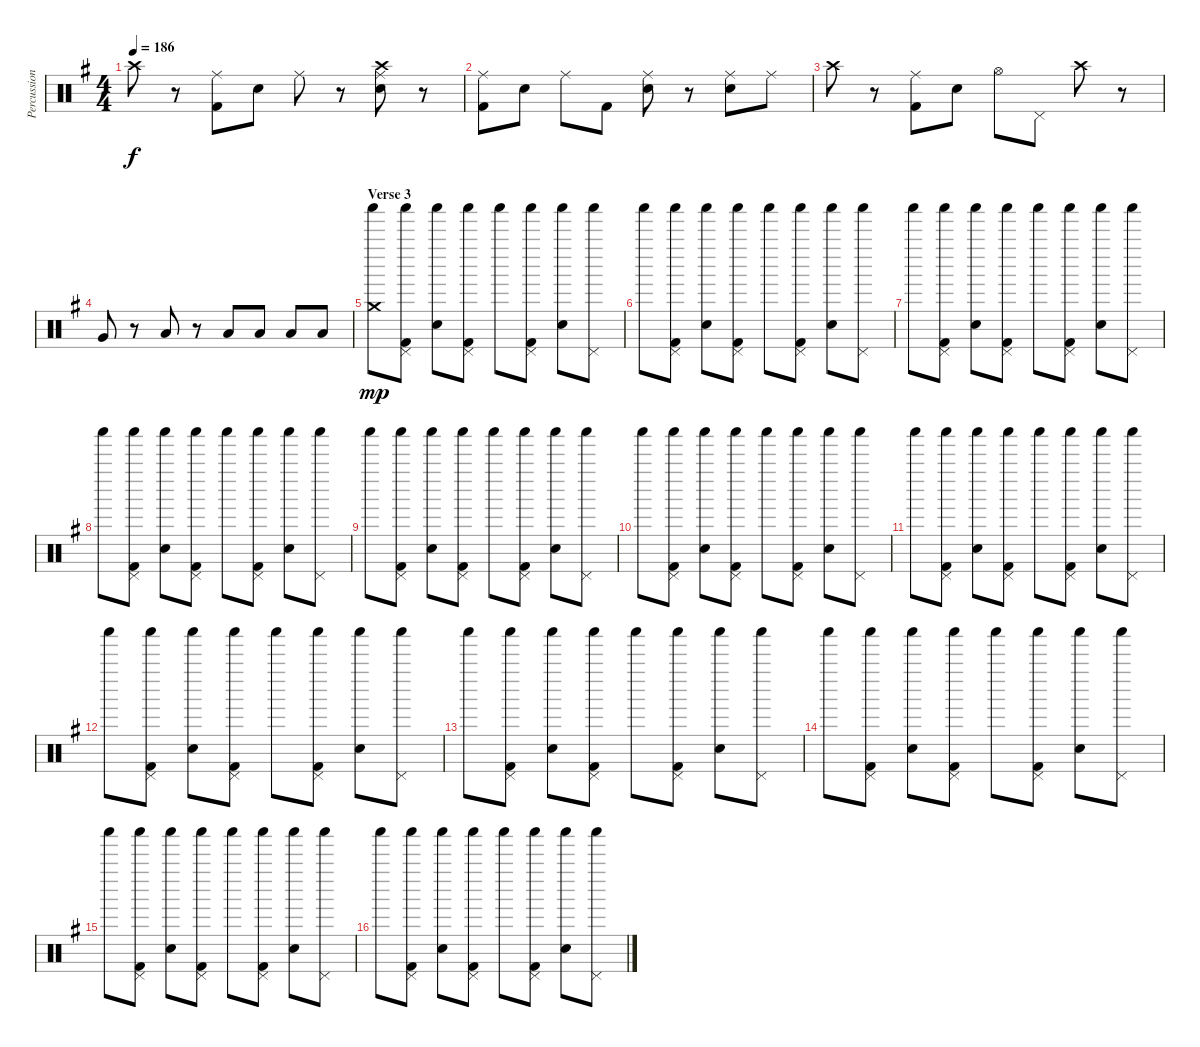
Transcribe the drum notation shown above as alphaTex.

\track ("Percussion" "Percussion") {instrument percussion}
\staff {score}
\articulation defaults
\ts (4 4)
\tempo 186
\clef neutral
\ks g "Crash high (hit)".8{dy f}
r.8 ("Ride (middle)" "Kick (hit) 2").8 "Electric Snare (hit)".8 "Ride (middle)".8 r.8 ("Ride (middle)" "Crash high (hit)" "Electric Snare (hit)").8 r.8 |
("Ride (middle)" "Kick (hit) 2").8 "Electric Snare (hit)".8 "Ride (middle)".8 "Kick (hit) 2".8 ("Ride (middle)" "Electric Snare (hit)").8 r.8 ("Ride (middle)" "Electric Snare (hit)").8 "Ride (middle)".8 |
"Crash high (hit)".8 r.8 ("Ride (middle)" "Kick (hit) 2").8 "Electric Snare (hit)".8 "Hi-Hat (open)".8 "Pedal Hi-Hat (hit)".8 "Crash high (hit)".8 r.8 |
"Very Low Tom (hit)".8 r.8 "Low Tom (hit)".8 r.8 "Low Floor Tom (hit)".8 "Low Floor Tom (hit)".8 "Low Floor Tom (hit)".8 "Low Floor Tom (hit)".8 |
\section ("" "Verse 3")
("Shaker (hit)" "Crash medium (hit)").8{dy mp} ("Shaker (hit)" "Pedal Hi-Hat (hit)" "Kick (hit) 2").8 ("Shaker (hit)" "Electric Snare (hit)").8 ("Shaker (hit)" "Pedal Hi-Hat (hit)" "Kick (hit) 2").8 "Shaker (hit)".8 ("Shaker (hit)" "Pedal Hi-Hat (hit)" "Kick (hit) 2").8 ("Shaker (hit)" "Electric Snare (hit)").8 ("Shaker (hit)" "Pedal Hi-Hat (hit)").8 |
"Shaker (hit)".8 ("Shaker (hit)" "Pedal Hi-Hat (hit)" "Kick (hit) 2").8 ("Shaker (hit)" "Electric Snare (hit)").8 ("Shaker (hit)" "Pedal Hi-Hat (hit)" "Kick (hit) 2").8 "Shaker (hit)".8 ("Shaker (hit)" "Pedal Hi-Hat (hit)" "Kick (hit) 2").8 ("Shaker (hit)" "Electric Snare (hit)").8 ("Shaker (hit)" "Pedal Hi-Hat (hit)").8 |
"Shaker (hit)".8 ("Shaker (hit)" "Pedal Hi-Hat (hit)" "Kick (hit) 2").8 ("Shaker (hit)" "Electric Snare (hit)").8 ("Shaker (hit)" "Pedal Hi-Hat (hit)" "Kick (hit) 2").8 "Shaker (hit)".8 ("Shaker (hit)" "Pedal Hi-Hat (hit)" "Kick (hit) 2").8 ("Shaker (hit)" "Electric Snare (hit)").8 ("Shaker (hit)" "Pedal Hi-Hat (hit)").8 |
"Shaker (hit)".8 ("Shaker (hit)" "Pedal Hi-Hat (hit)" "Kick (hit) 2").8 ("Shaker (hit)" "Electric Snare (hit)").8 ("Shaker (hit)" "Pedal Hi-Hat (hit)" "Kick (hit) 2").8 "Shaker (hit)".8 ("Shaker (hit)" "Pedal Hi-Hat (hit)" "Kick (hit) 2").8 ("Shaker (hit)" "Electric Snare (hit)").8 ("Shaker (hit)" "Pedal Hi-Hat (hit)").8 |
"Shaker (hit)".8 ("Shaker (hit)" "Pedal Hi-Hat (hit)" "Kick (hit) 2").8 ("Shaker (hit)" "Electric Snare (hit)").8 ("Shaker (hit)" "Pedal Hi-Hat (hit)" "Kick (hit) 2").8 "Shaker (hit)".8 ("Shaker (hit)" "Pedal Hi-Hat (hit)" "Kick (hit) 2").8 ("Shaker (hit)" "Electric Snare (hit)").8 ("Shaker (hit)" "Pedal Hi-Hat (hit)").8 |
"Shaker (hit)".8 ("Shaker (hit)" "Pedal Hi-Hat (hit)" "Kick (hit) 2").8 ("Shaker (hit)" "Electric Snare (hit)").8 ("Shaker (hit)" "Pedal Hi-Hat (hit)" "Kick (hit) 2").8 "Shaker (hit)".8 ("Shaker (hit)" "Pedal Hi-Hat (hit)" "Kick (hit) 2").8 ("Shaker (hit)" "Electric Snare (hit)").8 ("Shaker (hit)" "Pedal Hi-Hat (hit)").8 |
"Shaker (hit)".8 ("Shaker (hit)" "Pedal Hi-Hat (hit)" "Kick (hit) 2").8 ("Shaker (hit)" "Electric Snare (hit)").8 ("Shaker (hit)" "Pedal Hi-Hat (hit)" "Kick (hit) 2").8 "Shaker (hit)".8 ("Shaker (hit)" "Pedal Hi-Hat (hit)" "Kick (hit) 2").8 ("Shaker (hit)" "Electric Snare (hit)").8 ("Shaker (hit)" "Pedal Hi-Hat (hit)").8 |
"Shaker (hit)".8 ("Shaker (hit)" "Pedal Hi-Hat (hit)" "Kick (hit) 2").8 ("Shaker (hit)" "Electric Snare (hit)").8 ("Shaker (hit)" "Pedal Hi-Hat (hit)" "Kick (hit) 2").8 "Shaker (hit)".8 ("Shaker (hit)" "Pedal Hi-Hat (hit)" "Kick (hit) 2").8 ("Shaker (hit)" "Electric Snare (hit)").8 ("Shaker (hit)" "Pedal Hi-Hat (hit)").8 |
"Shaker (hit)".8 ("Shaker (hit)" "Pedal Hi-Hat (hit)" "Kick (hit) 2").8 ("Shaker (hit)" "Electric Snare (hit)").8 ("Shaker (hit)" "Pedal Hi-Hat (hit)" "Kick (hit) 2").8 "Shaker (hit)".8 ("Shaker (hit)" "Pedal Hi-Hat (hit)" "Kick (hit) 2").8 ("Shaker (hit)" "Electric Snare (hit)").8 ("Shaker (hit)" "Pedal Hi-Hat (hit)").8 |
"Shaker (hit)".8 ("Shaker (hit)" "Pedal Hi-Hat (hit)" "Kick (hit) 2").8 ("Shaker (hit)" "Electric Snare (hit)").8 ("Shaker (hit)" "Pedal Hi-Hat (hit)" "Kick (hit) 2").8 "Shaker (hit)".8 ("Shaker (hit)" "Pedal Hi-Hat (hit)" "Kick (hit) 2").8 ("Shaker (hit)" "Electric Snare (hit)").8 ("Shaker (hit)" "Pedal Hi-Hat (hit)").8 |
"Shaker (hit)".8 ("Shaker (hit)" "Pedal Hi-Hat (hit)" "Kick (hit) 2").8 ("Shaker (hit)" "Electric Snare (hit)").8 ("Shaker (hit)" "Pedal Hi-Hat (hit)" "Kick (hit) 2").8 "Shaker (hit)".8 ("Shaker (hit)" "Pedal Hi-Hat (hit)" "Kick (hit) 2").8 ("Shaker (hit)" "Electric Snare (hit)").8 ("Shaker (hit)" "Pedal Hi-Hat (hit)").8 |
"Shaker (hit)".8 ("Shaker (hit)" "Pedal Hi-Hat (hit)" "Kick (hit) 2").8 ("Shaker (hit)" "Electric Snare (hit)").8 ("Shaker (hit)" "Pedal Hi-Hat (hit)" "Kick (hit) 2").8 "Shaker (hit)".8 ("Shaker (hit)" "Pedal Hi-Hat (hit)" "Kick (hit) 2").8 ("Shaker (hit)" "Electric Snare (hit)").8 ("Shaker (hit)" "Pedal Hi-Hat (hit)").8
